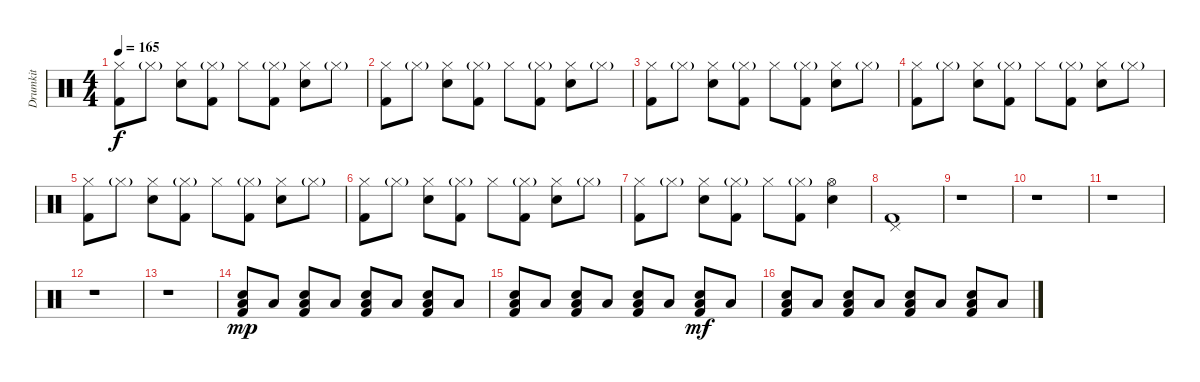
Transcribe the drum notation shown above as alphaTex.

\track ("Drumkit" "Drumkit") {instrument percussion}
\staff {score}
\articulation defaults
\ts (4 4)
\tempo 165
\clef neutral
\ks c
("Hi-Hat (closed)" "Kick (hit) 2").8{dy f} "Hi-Hat (closed)"{g}.8 ("Hi-Hat (closed)" "Snare (hit) 2").8 ("Hi-Hat (closed)"{g} "Kick (hit) 2").8 "Hi-Hat (closed)".8 ("Hi-Hat (closed)"{g} "Kick (hit) 2").8 ("Hi-Hat (closed)" "Snare (hit) 2").8 "Hi-Hat (closed)"{g}.8 |
("Hi-Hat (closed)" "Kick (hit) 2").8 "Hi-Hat (closed)"{g}.8 ("Hi-Hat (closed)" "Snare (hit) 2").8 ("Hi-Hat (closed)"{g} "Kick (hit) 2").8 "Hi-Hat (closed)".8 ("Hi-Hat (closed)"{g} "Kick (hit) 2").8 ("Hi-Hat (closed)" "Snare (hit) 2").8 "Hi-Hat (closed)"{g}.8 |
("Hi-Hat (closed)" "Kick (hit) 2").8 "Hi-Hat (closed)"{g}.8 ("Hi-Hat (closed)" "Snare (hit) 2").8 ("Hi-Hat (closed)"{g} "Kick (hit) 2").8 "Hi-Hat (closed)".8 ("Hi-Hat (closed)"{g} "Kick (hit) 2").8 ("Hi-Hat (closed)" "Snare (hit) 2").8 "Hi-Hat (closed)"{g}.8 |
("Hi-Hat (closed)" "Kick (hit) 2").8 "Hi-Hat (closed)"{g}.8 ("Hi-Hat (closed)" "Snare (hit) 2").8 ("Hi-Hat (closed)"{g} "Kick (hit) 2").8 "Hi-Hat (closed)".8 ("Hi-Hat (closed)"{g} "Kick (hit) 2").8 ("Hi-Hat (closed)" "Snare (hit) 2").8 "Hi-Hat (closed)"{g}.8 |
("Hi-Hat (closed)" "Kick (hit) 2").8 "Hi-Hat (closed)"{g}.8 ("Hi-Hat (closed)" "Snare (hit) 2").8 ("Hi-Hat (closed)"{g} "Kick (hit) 2").8 "Hi-Hat (closed)".8 ("Hi-Hat (closed)"{g} "Kick (hit) 2").8 ("Hi-Hat (closed)" "Snare (hit) 2").8 "Hi-Hat (closed)"{g}.8 |
("Hi-Hat (closed)" "Kick (hit) 2").8 "Hi-Hat (closed)"{g}.8 ("Hi-Hat (closed)" "Snare (hit) 2").8 ("Hi-Hat (closed)"{g} "Kick (hit) 2").8 "Hi-Hat (closed)".8 ("Hi-Hat (closed)"{g} "Kick (hit) 2").8 ("Hi-Hat (closed)" "Snare (hit) 2").8 "Hi-Hat (closed)"{g}.8 |
("Hi-Hat (closed)" "Kick (hit) 2").8 "Hi-Hat (closed)"{g}.8 ("Hi-Hat (closed)" "Snare (hit) 2").8 ("Hi-Hat (closed)"{g} "Kick (hit) 2").8 "Hi-Hat (closed)".8 ("Hi-Hat (closed)"{g} "Kick (hit) 2").8 ("Hi-Hat (open)" "Snare (hit) 2").4 |
("Pedal Hi-Hat (hit)" "Kick (hit) 2").1 |
r.1 |
r.1 |
r.1 |
r.1 |
r.1 |
("Low Floor Tom (hit)" "Snare (hit) 2" "Kick (hit) 2").8{dy mp} "Low Floor Tom (hit)".8 ("Low Floor Tom (hit)" "Snare (hit) 2" "Kick (hit) 2").8 "Low Floor Tom (hit)".8 ("Low Floor Tom (hit)" "Snare (hit) 2" "Kick (hit) 2").8 "Low Floor Tom (hit)".8 ("Low Floor Tom (hit)" "Snare (hit) 2" "Kick (hit) 2").8 "Low Floor Tom (hit)".8 |
("Low Floor Tom (hit)" "Snare (hit) 2" "Kick (hit) 2").8 "Low Floor Tom (hit)".8 ("Low Floor Tom (hit)" "Snare (hit) 2" "Kick (hit) 2").8 "Low Floor Tom (hit)".8 ("Low Floor Tom (hit)" "Snare (hit) 2" "Kick (hit) 2").8 "Low Floor Tom (hit)".8 ("Low Floor Tom (hit)" "Snare (hit) 2" "Kick (hit) 2").8{dy mf} "Low Floor Tom (hit)".8 |
("Low Floor Tom (hit)" "Snare (hit) 2" "Kick (hit) 2").8 "Low Floor Tom (hit)".8 ("Low Floor Tom (hit)" "Snare (hit) 2" "Kick (hit) 2").8 "Low Floor Tom (hit)".8 ("Low Floor Tom (hit)" "Snare (hit) 2" "Kick (hit) 2").8 "Low Floor Tom (hit)".8 ("Low Floor Tom (hit)" "Snare (hit) 2" "Kick (hit) 2").8 "Low Floor Tom (hit)".8
